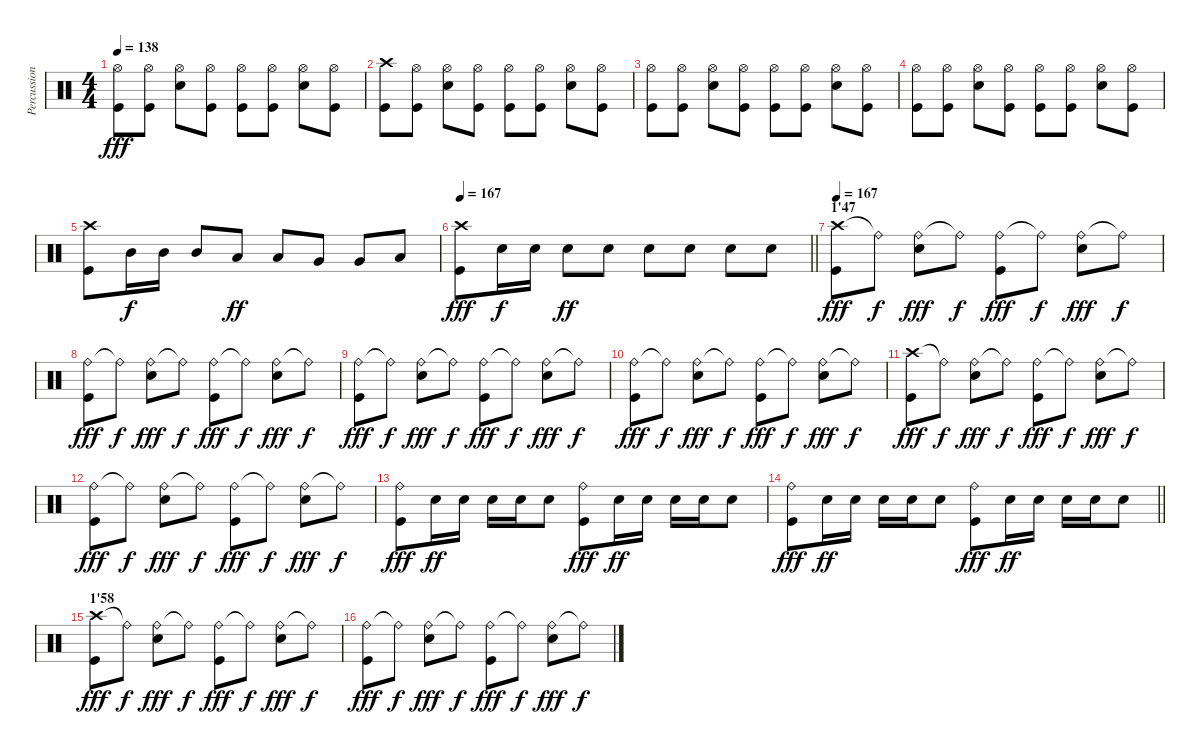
\track ("Percussions" "Percussion") {instrument percussion}
\staff {score}
\articulation defaults
\ts (4 4)
\tempo 138
\clef neutral
\ks c
("Hi-Hat (open)" "Kick (hit)").8{dy fff} ("Hi-Hat (open)" "Kick (hit)").8 ("Hi-Hat (open)" "Electric Snare (hit)").8 ("Hi-Hat (open)" "Kick (hit)").8 ("Hi-Hat (open)" "Kick (hit)").8 ("Hi-Hat (open)" "Kick (hit)").8 ("Hi-Hat (open)" "Electric Snare (hit)").8 ("Hi-Hat (open)" "Kick (hit)").8 |
("Crash high (hit)" "Kick (hit)").8 ("Hi-Hat (open)" "Kick (hit)").8 ("Hi-Hat (open)" "Electric Snare (hit)").8 ("Hi-Hat (open)" "Kick (hit)").8 ("Hi-Hat (open)" "Kick (hit)").8 ("Hi-Hat (open)" "Kick (hit)").8 ("Hi-Hat (open)" "Electric Snare (hit)").8 ("Hi-Hat (open)" "Kick (hit)").8 |
("Hi-Hat (open)" "Kick (hit)").8 ("Hi-Hat (open)" "Kick (hit)").8 ("Hi-Hat (open)" "Electric Snare (hit)").8 ("Hi-Hat (open)" "Kick (hit)").8 ("Hi-Hat (open)" "Kick (hit)").8 ("Hi-Hat (open)" "Kick (hit)").8 ("Hi-Hat (open)" "Electric Snare (hit)").8 ("Hi-Hat (open)" "Kick (hit)").8 |
("Hi-Hat (open)" "Kick (hit)").8 ("Hi-Hat (open)" "Kick (hit)").8 ("Hi-Hat (open)" "Electric Snare (hit)").8 ("Hi-Hat (open)" "Kick (hit)").8 ("Hi-Hat (open)" "Kick (hit)").8 ("Hi-Hat (open)" "Kick (hit)").8 ("Hi-Hat (open)" "Electric Snare (hit)").8 ("Hi-Hat (open)" "Kick (hit)").8 |
("Crash high (hit)" "Kick (hit)").8 "Mid Tom (hit)".16{dy f} "Mid Tom (hit)".16 "Mid Tom (hit)".8 "Low Tom (hit)".8{dy ff} "Low Tom (hit)".8 "Very Low Tom (hit)".8 "Very Low Tom (hit)".8 "Low Floor Tom (hit)".8 |
\tempo 167
\barLineRight lightlight
("Crash high (hit)" "Kick (hit)").8{dy fff} "Electric Snare (hit)".16{dy f} "Electric Snare (hit)".16 "Electric Snare (hit)".8{dy ff} "Electric Snare (hit)".8 "Electric Snare (hit)".8 "Electric Snare (hit)".8 "Electric Snare (hit)".8 "Electric Snare (hit)".8 |
\section ("" "1'47")
\tempo 167
("Crash high (hit)" "Kick (hit)").8{dy fff} "Ride (bell)"{t}.8{dy f} ("Ride (bell)" "Electric Snare (hit)").8{dy fff} "Ride (bell)"{t}.8{dy f} ("Ride (bell)" "Kick (hit)").8{dy fff} "Ride (bell)"{t}.8{dy f} ("Ride (bell)" "Electric Snare (hit)").8{dy fff} "Ride (bell)"{t}.8{dy f} |
("Ride (bell)" "Kick (hit)").8{dy fff} "Ride (bell)"{t}.8{dy f} ("Ride (bell)" "Electric Snare (hit)").8{dy fff} "Ride (bell)"{t}.8{dy f} ("Ride (bell)" "Kick (hit)").8{dy fff} "Ride (bell)"{t}.8{dy f} ("Ride (bell)" "Electric Snare (hit)").8{dy fff} "Ride (bell)"{t}.8{dy f} |
("Ride (bell)" "Kick (hit)").8{dy fff} "Ride (bell)"{t}.8{dy f} ("Ride (bell)" "Electric Snare (hit)").8{dy fff} "Ride (bell)"{t}.8{dy f} ("Ride (bell)" "Kick (hit)").8{dy fff} "Ride (bell)"{t}.8{dy f} ("Ride (bell)" "Electric Snare (hit)").8{dy fff} "Ride (bell)"{t}.8{dy f} |
("Ride (bell)" "Kick (hit)").8{dy fff} "Ride (bell)"{t}.8{dy f} ("Ride (bell)" "Electric Snare (hit)").8{dy fff} "Ride (bell)"{t}.8{dy f} ("Ride (bell)" "Kick (hit)").8{dy fff} "Ride (bell)"{t}.8{dy f} ("Ride (bell)" "Electric Snare (hit)").8{dy fff} "Ride (bell)"{t}.8{dy f} |
("Crash high (hit)" "Kick (hit)").8{dy fff} "Ride (bell)"{t}.8{dy f} ("Ride (bell)" "Electric Snare (hit)").8{dy fff} "Ride (bell)"{t}.8{dy f} ("Ride (bell)" "Kick (hit)").8{dy fff} "Ride (bell)"{t}.8{dy f} ("Ride (bell)" "Electric Snare (hit)").8{dy fff} "Ride (bell)"{t}.8{dy f} |
("Ride (bell)" "Kick (hit)").8{dy fff} "Ride (bell)"{t}.8{dy f} ("Ride (bell)" "Electric Snare (hit)").8{dy fff} "Ride (bell)"{t}.8{dy f} ("Ride (bell)" "Kick (hit)").8{dy fff} "Ride (bell)"{t}.8{dy f} ("Ride (bell)" "Electric Snare (hit)").8{dy fff} "Ride (bell)"{t}.8{dy f} |
("Ride (bell)" "Kick (hit)").8{dy fff} "Electric Snare (hit)".16{dy ff} "Electric Snare (hit)".16 "Electric Snare (hit)".16 "Electric Snare (hit)".16 "Electric Snare (hit)".8 ("Ride (bell)" "Kick (hit)").8{dy fff} "Electric Snare (hit)".16{dy ff} "Electric Snare (hit)".16 "Electric Snare (hit)".16 "Electric Snare (hit)".16 "Electric Snare (hit)".8 |
\barLineRight lightlight
("Ride (bell)" "Kick (hit)").8{dy fff} "Electric Snare (hit)".16{dy ff} "Electric Snare (hit)".16 "Electric Snare (hit)".16 "Electric Snare (hit)".16 "Electric Snare (hit)".8 ("Ride (bell)" "Kick (hit)").8{dy fff} "Electric Snare (hit)".16{dy ff} "Electric Snare (hit)".16 "Electric Snare (hit)".16 "Electric Snare (hit)".16 "Electric Snare (hit)".8 |
\section ("" "1'58")
("Crash high (hit)" "Kick (hit)").8{dy fff} "Ride (bell)"{t}.8{dy f} ("Ride (bell)" "Electric Snare (hit)").8{dy fff} "Ride (bell)"{t}.8{dy f} ("Ride (bell)" "Kick (hit)").8{dy fff} "Ride (bell)"{t}.8{dy f} ("Ride (bell)" "Electric Snare (hit)").8{dy fff} "Ride (bell)"{t}.8{dy f} |
("Ride (bell)" "Kick (hit)").8{dy fff} "Ride (bell)"{t}.8{dy f} ("Ride (bell)" "Electric Snare (hit)").8{dy fff} "Ride (bell)"{t}.8{dy f} ("Ride (bell)" "Kick (hit)").8{dy fff} "Ride (bell)"{t}.8{dy f} ("Ride (bell)" "Electric Snare (hit)").8{dy fff} "Ride (bell)"{t}.8{dy f}
